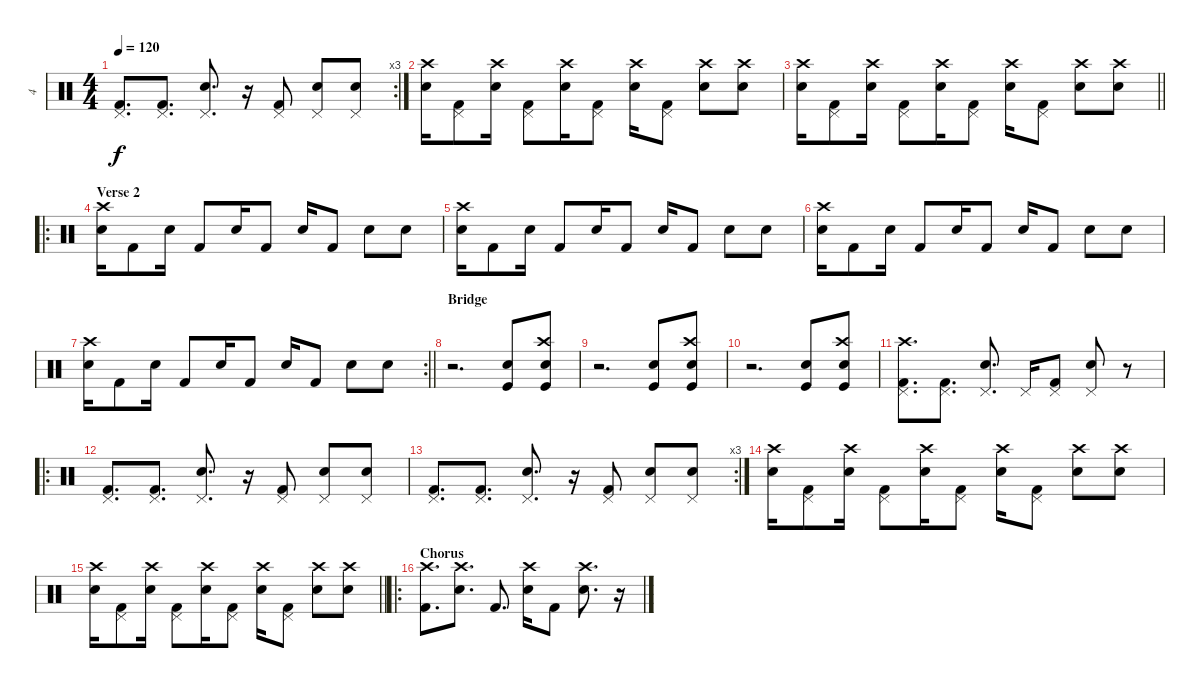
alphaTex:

\track ("4" "4") {instrument percussion}
\staff {score}
\articulation defaults
\rc 3
\ts (4 4)
\tempo 120
\clef neutral
\ks c
("Pedal Hi-Hat (hit)" "Kick (hit) 2").8{d dy f} ("Pedal Hi-Hat (hit)" "Kick (hit) 2").8{d} ("Pedal Hi-Hat (hit)" "Snare (hit) 2").8{d} r.16 ("Pedal Hi-Hat (hit)" "Kick (hit) 2").8 ("Pedal Hi-Hat (hit)" "Snare (hit) 2").8 ("Pedal Hi-Hat (hit)" "Snare (hit) 2").8 |
("Crash high (hit)" "Snare (hit) 2").16 ("Pedal Hi-Hat (hit)" "Kick (hit) 2").8 ("Crash high (hit)" "Snare (hit) 2").16 ("Pedal Hi-Hat (hit)" "Kick (hit) 2").8 ("Crash high (hit)" "Snare (hit) 2").16 ("Pedal Hi-Hat (hit)" "Kick (hit) 2").8 ("Crash high (hit)" "Snare (hit) 2").16 ("Pedal Hi-Hat (hit)" "Kick (hit) 2").8 ("Crash high (hit)" "Snare (hit) 2").8 ("Crash high (hit)" "Snare (hit) 2").8 |
\barLineRight lightlight
("Crash high (hit)" "Snare (hit) 2").16 ("Pedal Hi-Hat (hit)" "Kick (hit) 2").8 ("Crash high (hit)" "Snare (hit) 2").16 ("Pedal Hi-Hat (hit)" "Kick (hit) 2").8 ("Crash high (hit)" "Snare (hit) 2").16 ("Pedal Hi-Hat (hit)" "Kick (hit) 2").8 ("Crash high (hit)" "Snare (hit) 2").16 ("Pedal Hi-Hat (hit)" "Kick (hit) 2").8 ("Crash high (hit)" "Snare (hit) 2").8 ("Crash high (hit)" "Snare (hit) 2").8 |
\ro
\section ("" "Verse 2")
("Crash high (hit)" "Snare (hit) 2").16 "Kick (hit) 2".8 "Snare (hit) 2".16 "Kick (hit) 2".8 "Snare (hit) 2".16 "Kick (hit) 2".8 "Snare (hit) 2".16 "Kick (hit) 2".8 "Snare (hit) 2".8 "Snare (hit) 2".8 |
("Crash high (hit)" "Snare (hit) 2").16 "Kick (hit) 2".8 "Snare (hit) 2".16 "Kick (hit) 2".8 "Snare (hit) 2".16 "Kick (hit) 2".8 "Snare (hit) 2".16 "Kick (hit) 2".8 "Snare (hit) 2".8 "Snare (hit) 2".8 |
("Crash high (hit)" "Snare (hit) 2").16 "Kick (hit) 2".8 "Snare (hit) 2".16 "Kick (hit) 2".8 "Snare (hit) 2".16 "Kick (hit) 2".8 "Snare (hit) 2".16 "Kick (hit) 2".8 "Snare (hit) 2".8 "Snare (hit) 2".8 |
\rc 2
\barLineRight lightlight
("Crash high (hit)" "Snare (hit) 2").16 "Kick (hit) 2".8 "Snare (hit) 2".16 "Kick (hit) 2".8 "Snare (hit) 2".16 "Kick (hit) 2".8 "Snare (hit) 2".16 "Kick (hit) 2".8 "Snare (hit) 2".8 "Snare (hit) 2".8 |
\section ("" "Bridge")
r.2{d} ("Kick (hit)" "Snare (hit) 2").8 ("Crash high (hit)" "Kick (hit)" "Snare (hit) 2").8 |
r.2{d} ("Kick (hit)" "Snare (hit) 2").8 ("Crash high (hit)" "Kick (hit)" "Snare (hit) 2").8 |
r.2{d} ("Kick (hit)" "Snare (hit) 2").8 ("Crash high (hit)" "Kick (hit)" "Snare (hit) 2").8 |
("Crash high (hit)" "Pedal Hi-Hat (hit)" "Kick (hit) 2").8{d} ("Pedal Hi-Hat (hit)" "Kick (hit) 2").8{d} ("Pedal Hi-Hat (hit)" "Snare (hit) 2").8{d} "Pedal Hi-Hat (hit)".16 ("Pedal Hi-Hat (hit)" "Kick (hit) 2").8 ("Pedal Hi-Hat (hit)" "Snare (hit) 2").8 r.8 |
\ro
("Pedal Hi-Hat (hit)" "Kick (hit) 2").8{d} ("Pedal Hi-Hat (hit)" "Kick (hit) 2").8{d} ("Pedal Hi-Hat (hit)" "Snare (hit) 2").8{d} r.16 ("Pedal Hi-Hat (hit)" "Kick (hit) 2").8 ("Pedal Hi-Hat (hit)" "Snare (hit) 2").8 ("Pedal Hi-Hat (hit)" "Snare (hit) 2").8 |
\rc 3
("Pedal Hi-Hat (hit)" "Kick (hit) 2").8{d} ("Pedal Hi-Hat (hit)" "Kick (hit) 2").8{d} ("Pedal Hi-Hat (hit)" "Snare (hit) 2").8{d} r.16 ("Pedal Hi-Hat (hit)" "Kick (hit) 2").8 ("Pedal Hi-Hat (hit)" "Snare (hit) 2").8 ("Pedal Hi-Hat (hit)" "Snare (hit) 2").8 |
("Crash high (hit)" "Snare (hit) 2").16 ("Pedal Hi-Hat (hit)" "Kick (hit) 2").8 ("Crash high (hit)" "Snare (hit) 2").16 ("Pedal Hi-Hat (hit)" "Kick (hit) 2").8 ("Crash high (hit)" "Snare (hit) 2").16 ("Pedal Hi-Hat (hit)" "Kick (hit) 2").8 ("Crash high (hit)" "Snare (hit) 2").16 ("Pedal Hi-Hat (hit)" "Kick (hit) 2").8 ("Crash high (hit)" "Snare (hit) 2").8 ("Crash high (hit)" "Snare (hit) 2").8 |
\barLineRight lightlight
("Crash high (hit)" "Snare (hit) 2").16 ("Pedal Hi-Hat (hit)" "Kick (hit) 2").8 ("Crash high (hit)" "Snare (hit) 2").16 ("Pedal Hi-Hat (hit)" "Kick (hit) 2").8 ("Crash high (hit)" "Snare (hit) 2").16 ("Pedal Hi-Hat (hit)" "Kick (hit) 2").8 ("Crash high (hit)" "Snare (hit) 2").16 ("Pedal Hi-Hat (hit)" "Kick (hit) 2").8 ("Crash high (hit)" "Snare (hit) 2").8 ("Crash high (hit)" "Snare (hit) 2").8 |
\ro
\section ("" "Chorus")
("Crash high (hit)" "Kick (hit) 2").8{d} ("Crash high (hit)" "Snare (hit) 2").8{d} "Kick (hit) 2".8{d} ("Crash high (hit)" "Snare (hit) 2").16 "Kick (hit) 2".8 ("Crash high (hit)" "Snare (hit) 2").8{d} r.16
